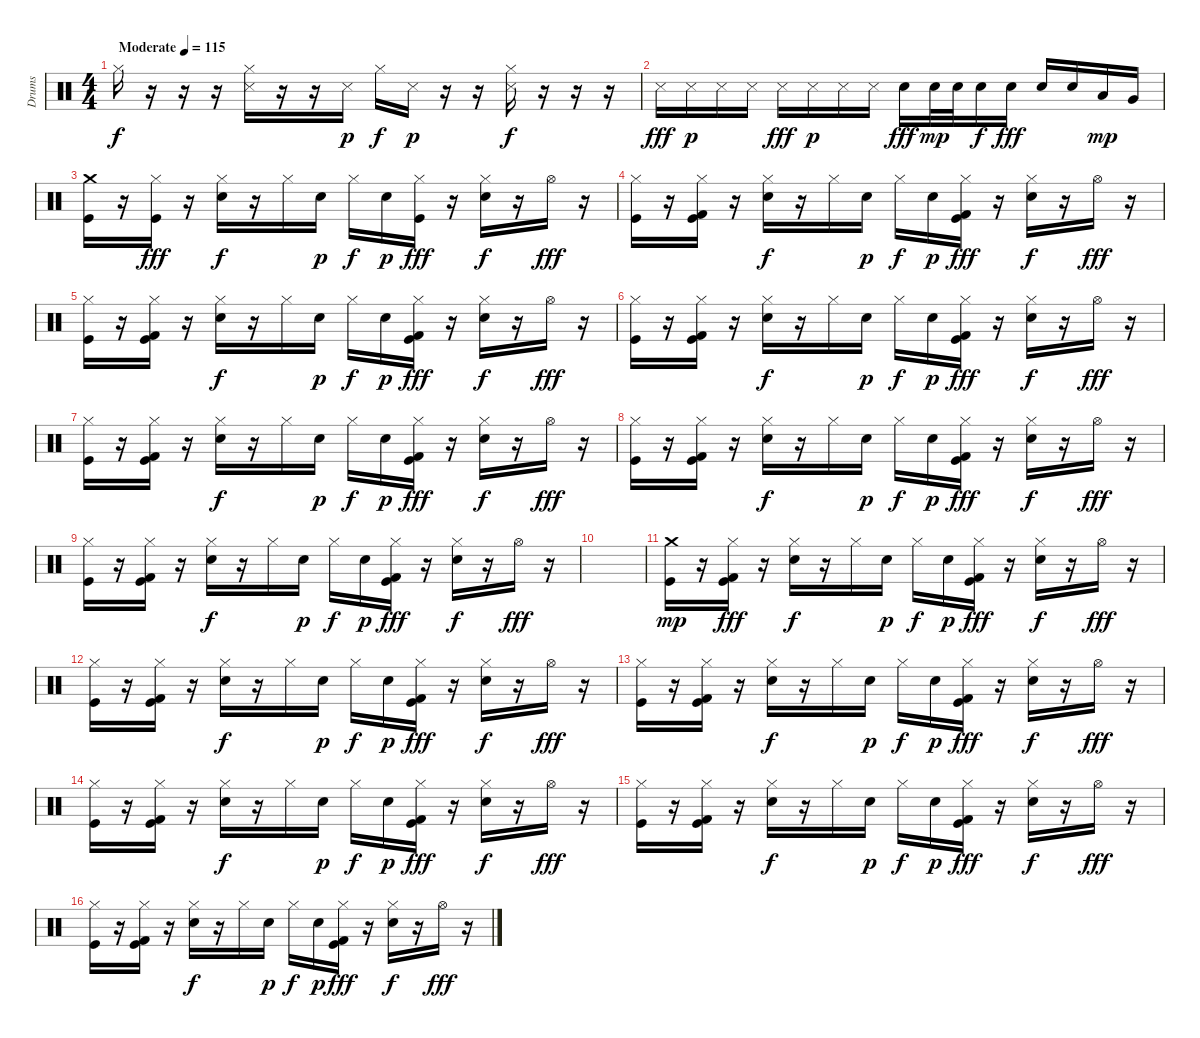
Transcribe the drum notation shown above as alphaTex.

\track ("Drums" "Drums") {instrument percussion}
\staff {score}
\articulation defaults
\ts (4 4)
\tempo (115 "Moderate")
\clef neutral
\ks c "Hi-Hat (closed)".16{dy f}
r.16 r.16 r.16 ("Snare (side stick) 3" "Hi-Hat (closed)").16 r.16 r.16 "Snare (side stick) 3".16{dy p} "Hi-Hat (closed)".16{dy f} "Snare (side stick) 3".16{dy p} r.16 r.16 ("Snare (side stick) 3" "Hi-Hat (closed)").16{dy f} r.16 r.16 r.16 |
"Snare (side stick) 3".16{dy fff} "Snare (side stick) 3".16{dy p} "Snare (side stick) 3".16 "Snare (side stick) 3".16 "Snare (side stick) 3".16{dy fff} "Snare (side stick) 3".16{dy p} "Snare (side stick) 3".16 "Snare (side stick) 3".16 "Electric Snare (hit)".16{dy fff} "Electric Snare (hit)".32{dy mp} "Electric Snare (hit)".32 "Electric Snare (hit)".16{dy f} "Electric Snare (hit)".16{dy fff} "Electric Snare (hit)".16 "Electric Snare (hit)".16 "Low Tom (hit)".16{dy mp} "Very Low Tom (hit)".16 |
("Kick (hit)" "Crash medium (hit)").16 r.16 ("Kick (hit)" "Hi-Hat (closed)").16{dy fff} r.16 ("Electric Snare (hit)" "Hi-Hat (closed)").16{dy f} r.16 "Hi-Hat (closed)".16 "Electric Snare (hit)".16{dy p} "Hi-Hat (closed)".16{dy f} "Electric Snare (hit)".16{dy p} ("Kick (hit)" "Hi-Hat (closed)").16{dy fff} r.16 ("Electric Snare (hit)" "Hi-Hat (closed)").16{dy f} r.16 "Hi-Hat (open)".16{dy fff} r.16 |
("Kick (hit)" "Hi-Hat (closed)").16 r.16 ("Kick (hit)" "Kick (hit) 2" "Hi-Hat (closed)").16 r.16 ("Electric Snare (hit)" "Hi-Hat (closed)").16{dy f} r.16 "Hi-Hat (closed)".16 "Electric Snare (hit)".16{dy p} "Hi-Hat (closed)".16{dy f} "Electric Snare (hit)".16{dy p} ("Kick (hit)" "Kick (hit) 2" "Hi-Hat (closed)").16{dy fff} r.16 ("Electric Snare (hit)" "Hi-Hat (closed)").16{dy f} r.16 "Hi-Hat (open)".16{dy fff} r.16 |
("Kick (hit)" "Hi-Hat (closed)").16 r.16 ("Kick (hit)" "Kick (hit) 2" "Hi-Hat (closed)").16 r.16 ("Electric Snare (hit)" "Hi-Hat (closed)").16{dy f} r.16 "Hi-Hat (closed)".16 "Electric Snare (hit)".16{dy p} "Hi-Hat (closed)".16{dy f} "Electric Snare (hit)".16{dy p} ("Kick (hit)" "Kick (hit) 2" "Hi-Hat (closed)").16{dy fff} r.16 ("Electric Snare (hit)" "Hi-Hat (closed)").16{dy f} r.16 "Hi-Hat (open)".16{dy fff} r.16 |
("Kick (hit)" "Hi-Hat (closed)").16 r.16 ("Kick (hit)" "Kick (hit) 2" "Hi-Hat (closed)").16 r.16 ("Electric Snare (hit)" "Hi-Hat (closed)").16{dy f} r.16 "Hi-Hat (closed)".16 "Electric Snare (hit)".16{dy p} "Hi-Hat (closed)".16{dy f} "Electric Snare (hit)".16{dy p} ("Kick (hit)" "Kick (hit) 2" "Hi-Hat (closed)").16{dy fff} r.16 ("Electric Snare (hit)" "Hi-Hat (closed)").16{dy f} r.16 "Hi-Hat (open)".16{dy fff} r.16 |
("Kick (hit)" "Hi-Hat (closed)").16 r.16 ("Kick (hit)" "Kick (hit) 2" "Hi-Hat (closed)").16 r.16 ("Electric Snare (hit)" "Hi-Hat (closed)").16{dy f} r.16 "Hi-Hat (closed)".16 "Electric Snare (hit)".16{dy p} "Hi-Hat (closed)".16{dy f} "Electric Snare (hit)".16{dy p} ("Kick (hit)" "Kick (hit) 2" "Hi-Hat (closed)").16{dy fff} r.16 ("Electric Snare (hit)" "Hi-Hat (closed)").16{dy f} r.16 "Hi-Hat (open)".16{dy fff} r.16 |
("Kick (hit)" "Hi-Hat (closed)").16 r.16 ("Kick (hit)" "Kick (hit) 2" "Hi-Hat (closed)").16 r.16 ("Electric Snare (hit)" "Hi-Hat (closed)").16{dy f} r.16 "Hi-Hat (closed)".16 "Electric Snare (hit)".16{dy p} "Hi-Hat (closed)".16{dy f} "Electric Snare (hit)".16{dy p} ("Kick (hit)" "Kick (hit) 2" "Hi-Hat (closed)").16{dy fff} r.16 ("Electric Snare (hit)" "Hi-Hat (closed)").16{dy f} r.16 "Hi-Hat (open)".16{dy fff} r.16 |
("Kick (hit)" "Hi-Hat (closed)").16 r.16 ("Kick (hit)" "Kick (hit) 2" "Hi-Hat (closed)").16 r.16 ("Electric Snare (hit)" "Hi-Hat (closed)").16{dy f} r.16 "Hi-Hat (closed)".16 "Electric Snare (hit)".16{dy p} "Hi-Hat (closed)".16{dy f} "Electric Snare (hit)".16{dy p} ("Kick (hit)" "Kick (hit) 2" "Hi-Hat (closed)").16{dy fff} r.16 ("Electric Snare (hit)" "Hi-Hat (closed)").16{dy f} r.16 "Hi-Hat (open)".16{dy fff} r.16 |
|
("Kick (hit)" "Crash medium (hit)").16{dy mp} r.16 ("Kick (hit)" "Kick (hit) 2" "Hi-Hat (closed)").16{dy fff} r.16 ("Electric Snare (hit)" "Hi-Hat (closed)").16{dy f} r.16 "Hi-Hat (closed)".16 "Electric Snare (hit)".16{dy p} "Hi-Hat (closed)".16{dy f} "Electric Snare (hit)".16{dy p} ("Kick (hit)" "Kick (hit) 2" "Hi-Hat (closed)").16{dy fff} r.16 ("Electric Snare (hit)" "Hi-Hat (closed)").16{dy f} r.16 "Hi-Hat (open)".16{dy fff} r.16 |
("Kick (hit)" "Hi-Hat (closed)").16 r.16 ("Kick (hit)" "Kick (hit) 2" "Hi-Hat (closed)").16 r.16 ("Electric Snare (hit)" "Hi-Hat (closed)").16{dy f} r.16 "Hi-Hat (closed)".16 "Electric Snare (hit)".16{dy p} "Hi-Hat (closed)".16{dy f} "Electric Snare (hit)".16{dy p} ("Kick (hit)" "Kick (hit) 2" "Hi-Hat (closed)").16{dy fff} r.16 ("Electric Snare (hit)" "Hi-Hat (closed)").16{dy f} r.16 "Hi-Hat (open)".16{dy fff} r.16 |
("Kick (hit)" "Hi-Hat (closed)").16 r.16 ("Kick (hit)" "Kick (hit) 2" "Hi-Hat (closed)").16 r.16 ("Electric Snare (hit)" "Hi-Hat (closed)").16{dy f} r.16 "Hi-Hat (closed)".16 "Electric Snare (hit)".16{dy p} "Hi-Hat (closed)".16{dy f} "Electric Snare (hit)".16{dy p} ("Kick (hit)" "Kick (hit) 2" "Hi-Hat (closed)").16{dy fff} r.16 ("Electric Snare (hit)" "Hi-Hat (closed)").16{dy f} r.16 "Hi-Hat (open)".16{dy fff} r.16 |
("Kick (hit)" "Hi-Hat (closed)").16 r.16 ("Kick (hit)" "Kick (hit) 2" "Hi-Hat (closed)").16 r.16 ("Electric Snare (hit)" "Hi-Hat (closed)").16{dy f} r.16 "Hi-Hat (closed)".16 "Electric Snare (hit)".16{dy p} "Hi-Hat (closed)".16{dy f} "Electric Snare (hit)".16{dy p} ("Kick (hit)" "Kick (hit) 2" "Hi-Hat (closed)").16{dy fff} r.16 ("Electric Snare (hit)" "Hi-Hat (closed)").16{dy f} r.16 "Hi-Hat (open)".16{dy fff} r.16 |
("Kick (hit)" "Hi-Hat (closed)").16 r.16 ("Kick (hit)" "Kick (hit) 2" "Hi-Hat (closed)").16 r.16 ("Electric Snare (hit)" "Hi-Hat (closed)").16{dy f} r.16 "Hi-Hat (closed)".16 "Electric Snare (hit)".16{dy p} "Hi-Hat (closed)".16{dy f} "Electric Snare (hit)".16{dy p} ("Kick (hit)" "Kick (hit) 2" "Hi-Hat (closed)").16{dy fff} r.16 ("Electric Snare (hit)" "Hi-Hat (closed)").16{dy f} r.16 "Hi-Hat (open)".16{dy fff} r.16 |
("Kick (hit)" "Hi-Hat (closed)").16 r.16 ("Kick (hit)" "Kick (hit) 2" "Hi-Hat (closed)").16 r.16 ("Electric Snare (hit)" "Hi-Hat (closed)").16{dy f} r.16 "Hi-Hat (closed)".16 "Electric Snare (hit)".16{dy p} "Hi-Hat (closed)".16{dy f} "Electric Snare (hit)".16{dy p} ("Kick (hit)" "Kick (hit) 2" "Hi-Hat (closed)").16{dy fff} r.16 ("Electric Snare (hit)" "Hi-Hat (closed)").16{dy f} r.16 "Hi-Hat (open)".16{dy fff} r.16
